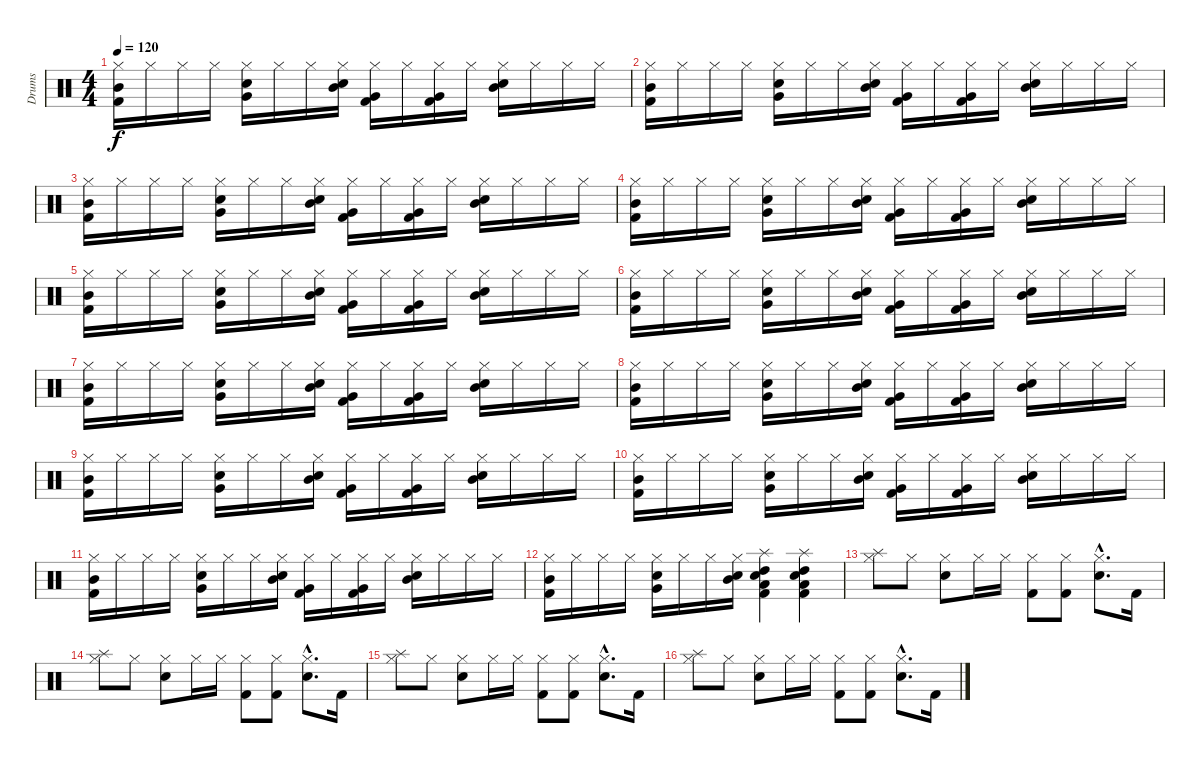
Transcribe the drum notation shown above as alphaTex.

\track ("Drums" "Drums") {instrument percussion}
\staff {score}
\articulation defaults
\ts (4 4)
\tempo 120
\clef neutral
\ks c
("Hi-Hat (closed)" "Kick (hit) 2" "Mid Tom (hit)").16{dy f} "Hi-Hat (closed)".16 "Hi-Hat (closed)".16 "Hi-Hat (closed)".16 ("Hi-Hat (closed)" "Snare (hit) 2" "Very Low Tom (hit)").16 "Hi-Hat (closed)".16 "Hi-Hat (closed)".16 ("Hi-Hat (closed)" "Snare (hit) 2" "Mid Tom (hit)").16 ("Hi-Hat (closed)" "Kick (hit) 2" "Very Low Tom (hit)").16 "Hi-Hat (closed)".16 ("Hi-Hat (closed)" "Kick (hit) 2" "Very Low Tom (hit)").16 "Hi-Hat (closed)".16 ("Hi-Hat (closed)" "Snare (hit) 2" "Mid Tom (hit)").16 "Hi-Hat (closed)".16 "Hi-Hat (closed)".16 "Hi-Hat (closed)".16 |
("Hi-Hat (closed)" "Kick (hit) 2" "Mid Tom (hit)").16 "Hi-Hat (closed)".16 "Hi-Hat (closed)".16 "Hi-Hat (closed)".16 ("Hi-Hat (closed)" "Snare (hit) 2" "Very Low Tom (hit)").16 "Hi-Hat (closed)".16 "Hi-Hat (closed)".16 ("Hi-Hat (closed)" "Snare (hit) 2" "Mid Tom (hit)").16 ("Hi-Hat (closed)" "Kick (hit) 2" "Very Low Tom (hit)").16 "Hi-Hat (closed)".16 ("Hi-Hat (closed)" "Kick (hit) 2" "Very Low Tom (hit)").16 "Hi-Hat (closed)".16 ("Hi-Hat (closed)" "Snare (hit) 2" "Mid Tom (hit)").16 "Hi-Hat (closed)".16 "Hi-Hat (closed)".16 "Hi-Hat (closed)".16 |
("Hi-Hat (closed)" "Kick (hit) 2" "Mid Tom (hit)").16 "Hi-Hat (closed)".16 "Hi-Hat (closed)".16 "Hi-Hat (closed)".16 ("Hi-Hat (closed)" "Snare (hit) 2" "Very Low Tom (hit)").16 "Hi-Hat (closed)".16 "Hi-Hat (closed)".16 ("Hi-Hat (closed)" "Snare (hit) 2" "Mid Tom (hit)").16 ("Hi-Hat (closed)" "Kick (hit) 2" "Very Low Tom (hit)").16 "Hi-Hat (closed)".16 ("Hi-Hat (closed)" "Kick (hit) 2" "Very Low Tom (hit)").16 "Hi-Hat (closed)".16 ("Hi-Hat (closed)" "Snare (hit) 2" "Mid Tom (hit)").16 "Hi-Hat (closed)".16 "Hi-Hat (closed)".16 "Hi-Hat (closed)".16 |
("Hi-Hat (closed)" "Kick (hit) 2" "Mid Tom (hit)").16 "Hi-Hat (closed)".16 "Hi-Hat (closed)".16 "Hi-Hat (closed)".16 ("Hi-Hat (closed)" "Snare (hit) 2" "Very Low Tom (hit)").16 "Hi-Hat (closed)".16 "Hi-Hat (closed)".16 ("Hi-Hat (closed)" "Snare (hit) 2" "Mid Tom (hit)").16 ("Hi-Hat (closed)" "Kick (hit) 2" "Very Low Tom (hit)").16 "Hi-Hat (closed)".16 ("Hi-Hat (closed)" "Kick (hit) 2" "Very Low Tom (hit)").16 "Hi-Hat (closed)".16 ("Hi-Hat (closed)" "Snare (hit) 2" "Mid Tom (hit)").16 "Hi-Hat (closed)".16 "Hi-Hat (closed)".16 "Hi-Hat (closed)".16 |
("Hi-Hat (closed)" "Kick (hit) 2" "Mid Tom (hit)").16 "Hi-Hat (closed)".16 "Hi-Hat (closed)".16 "Hi-Hat (closed)".16 ("Hi-Hat (closed)" "Snare (hit) 2" "Very Low Tom (hit)").16 "Hi-Hat (closed)".16 "Hi-Hat (closed)".16 ("Hi-Hat (closed)" "Snare (hit) 2" "Mid Tom (hit)").16 ("Hi-Hat (closed)" "Kick (hit) 2" "Very Low Tom (hit)").16 "Hi-Hat (closed)".16 ("Hi-Hat (closed)" "Kick (hit) 2" "Very Low Tom (hit)").16 "Hi-Hat (closed)".16 ("Hi-Hat (closed)" "Snare (hit) 2" "Mid Tom (hit)").16 "Hi-Hat (closed)".16 "Hi-Hat (closed)".16 "Hi-Hat (closed)".16 |
("Hi-Hat (closed)" "Kick (hit) 2" "Mid Tom (hit)").16 "Hi-Hat (closed)".16 "Hi-Hat (closed)".16 "Hi-Hat (closed)".16 ("Hi-Hat (closed)" "Snare (hit) 2" "Very Low Tom (hit)").16 "Hi-Hat (closed)".16 "Hi-Hat (closed)".16 ("Hi-Hat (closed)" "Snare (hit) 2" "Mid Tom (hit)").16 ("Hi-Hat (closed)" "Kick (hit) 2" "Very Low Tom (hit)").16 "Hi-Hat (closed)".16 ("Hi-Hat (closed)" "Kick (hit) 2" "Very Low Tom (hit)").16 "Hi-Hat (closed)".16 ("Hi-Hat (closed)" "Snare (hit) 2" "Mid Tom (hit)").16 "Hi-Hat (closed)".16 "Hi-Hat (closed)".16 "Hi-Hat (closed)".16 |
("Hi-Hat (closed)" "Kick (hit) 2" "Mid Tom (hit)").16 "Hi-Hat (closed)".16 "Hi-Hat (closed)".16 "Hi-Hat (closed)".16 ("Hi-Hat (closed)" "Snare (hit) 2" "Very Low Tom (hit)").16 "Hi-Hat (closed)".16 "Hi-Hat (closed)".16 ("Hi-Hat (closed)" "Snare (hit) 2" "Mid Tom (hit)").16 ("Hi-Hat (closed)" "Kick (hit) 2" "Very Low Tom (hit)").16 "Hi-Hat (closed)".16 ("Hi-Hat (closed)" "Kick (hit) 2" "Very Low Tom (hit)").16 "Hi-Hat (closed)".16 ("Hi-Hat (closed)" "Snare (hit) 2" "Mid Tom (hit)").16 "Hi-Hat (closed)".16 "Hi-Hat (closed)".16 "Hi-Hat (closed)".16 |
("Hi-Hat (closed)" "Kick (hit) 2" "Mid Tom (hit)").16 "Hi-Hat (closed)".16 "Hi-Hat (closed)".16 "Hi-Hat (closed)".16 ("Hi-Hat (closed)" "Snare (hit) 2" "Very Low Tom (hit)").16 "Hi-Hat (closed)".16 "Hi-Hat (closed)".16 ("Hi-Hat (closed)" "Snare (hit) 2" "Mid Tom (hit)").16 ("Hi-Hat (closed)" "Kick (hit) 2" "Very Low Tom (hit)").16 "Hi-Hat (closed)".16 ("Hi-Hat (closed)" "Kick (hit) 2" "Very Low Tom (hit)").16 "Hi-Hat (closed)".16 ("Hi-Hat (closed)" "Snare (hit) 2" "Mid Tom (hit)").16 "Hi-Hat (closed)".16 "Hi-Hat (closed)".16 "Hi-Hat (closed)".16 |
("Hi-Hat (closed)" "Kick (hit) 2" "Mid Tom (hit)").16 "Hi-Hat (closed)".16 "Hi-Hat (closed)".16 "Hi-Hat (closed)".16 ("Hi-Hat (closed)" "Snare (hit) 2" "Very Low Tom (hit)").16 "Hi-Hat (closed)".16 "Hi-Hat (closed)".16 ("Hi-Hat (closed)" "Snare (hit) 2" "Mid Tom (hit)").16 ("Hi-Hat (closed)" "Kick (hit) 2" "Very Low Tom (hit)").16 "Hi-Hat (closed)".16 ("Hi-Hat (closed)" "Kick (hit) 2" "Very Low Tom (hit)").16 "Hi-Hat (closed)".16 ("Hi-Hat (closed)" "Snare (hit) 2" "Mid Tom (hit)").16 "Hi-Hat (closed)".16 "Hi-Hat (closed)".16 "Hi-Hat (closed)".16 |
("Hi-Hat (closed)" "Kick (hit) 2" "Mid Tom (hit)").16 "Hi-Hat (closed)".16 "Hi-Hat (closed)".16 "Hi-Hat (closed)".16 ("Hi-Hat (closed)" "Snare (hit) 2" "Very Low Tom (hit)").16 "Hi-Hat (closed)".16 "Hi-Hat (closed)".16 ("Hi-Hat (closed)" "Snare (hit) 2" "Mid Tom (hit)").16 ("Hi-Hat (closed)" "Kick (hit) 2" "Very Low Tom (hit)").16 "Hi-Hat (closed)".16 ("Hi-Hat (closed)" "Kick (hit) 2" "Very Low Tom (hit)").16 "Hi-Hat (closed)".16 ("Hi-Hat (closed)" "Snare (hit) 2" "Mid Tom (hit)").16 "Hi-Hat (closed)".16 "Hi-Hat (closed)".16 "Hi-Hat (closed)".16 |
("Hi-Hat (closed)" "Kick (hit) 2" "Mid Tom (hit)").16 "Hi-Hat (closed)".16 "Hi-Hat (closed)".16 "Hi-Hat (closed)".16 ("Hi-Hat (closed)" "Snare (hit) 2" "Very Low Tom (hit)").16 "Hi-Hat (closed)".16 "Hi-Hat (closed)".16 ("Hi-Hat (closed)" "Snare (hit) 2" "Mid Tom (hit)").16 ("Hi-Hat (closed)" "Kick (hit) 2" "Very Low Tom (hit)").16 "Hi-Hat (closed)".16 ("Hi-Hat (closed)" "Kick (hit) 2" "Very Low Tom (hit)").16 "Hi-Hat (closed)".16 ("Hi-Hat (closed)" "Snare (hit) 2" "Mid Tom (hit)").16 "Hi-Hat (closed)".16 "Hi-Hat (closed)".16 "Hi-Hat (closed)".16 |
("Hi-Hat (closed)" "Kick (hit) 2" "Mid Tom (hit)").16 "Hi-Hat (closed)".16 "Hi-Hat (closed)".16 "Hi-Hat (closed)".16 ("Hi-Hat (closed)" "Snare (hit) 2" "Very Low Tom (hit)").16 "Hi-Hat (closed)".16 "Hi-Hat (closed)".16 ("Hi-Hat (closed)" "Snare (hit) 2" "Mid Tom (hit)").16 ("Snare (hit) 2" "High Tom (hit)" "Low Tom (hit)" "Splash (hit)" "Kick (hit) 2").4 ("Snare (hit) 2" "High Tom (hit)" "Low Tom (hit)" "Splash (hit)" "Kick (hit) 2").4 |
("Splash (hit)" "Hi-Hat (closed)").8 "Hi-Hat (closed)".8 ("Snare (hit) 2" "Hi-Hat (closed)").8 "Hi-Hat (closed)".16 "Hi-Hat (closed)".16 ("Kick (hit) 2" "Hi-Hat (closed)").8 ("Kick (hit) 2" "Hi-Hat (closed)").8 ("Snare (hit) 2"{hac} "Hi-Hat (closed)"{hac}).8{d} "Kick (hit) 2".16 |
("Splash (hit)" "Hi-Hat (closed)").8 "Hi-Hat (closed)".8 ("Snare (hit) 2" "Hi-Hat (closed)").8 "Hi-Hat (closed)".16 "Hi-Hat (closed)".16 ("Kick (hit) 2" "Hi-Hat (closed)").8 ("Kick (hit) 2" "Hi-Hat (closed)").8 ("Snare (hit) 2"{hac} "Hi-Hat (closed)"{hac}).8{d} "Kick (hit) 2".16 |
("Splash (hit)" "Hi-Hat (closed)").8 "Hi-Hat (closed)".8 ("Snare (hit) 2" "Hi-Hat (closed)").8 "Hi-Hat (closed)".16 "Hi-Hat (closed)".16 ("Kick (hit) 2" "Hi-Hat (closed)").8 ("Kick (hit) 2" "Hi-Hat (closed)").8 ("Snare (hit) 2"{hac} "Hi-Hat (closed)"{hac}).8{d} "Kick (hit) 2".16 |
("Splash (hit)" "Hi-Hat (closed)").8 "Hi-Hat (closed)".8 ("Snare (hit) 2" "Hi-Hat (closed)").8 "Hi-Hat (closed)".16 "Hi-Hat (closed)".16 ("Kick (hit) 2" "Hi-Hat (closed)").8 ("Kick (hit) 2" "Hi-Hat (closed)").8 ("Snare (hit) 2"{hac} "Hi-Hat (closed)"{hac}).8{d} "Kick (hit) 2".16
